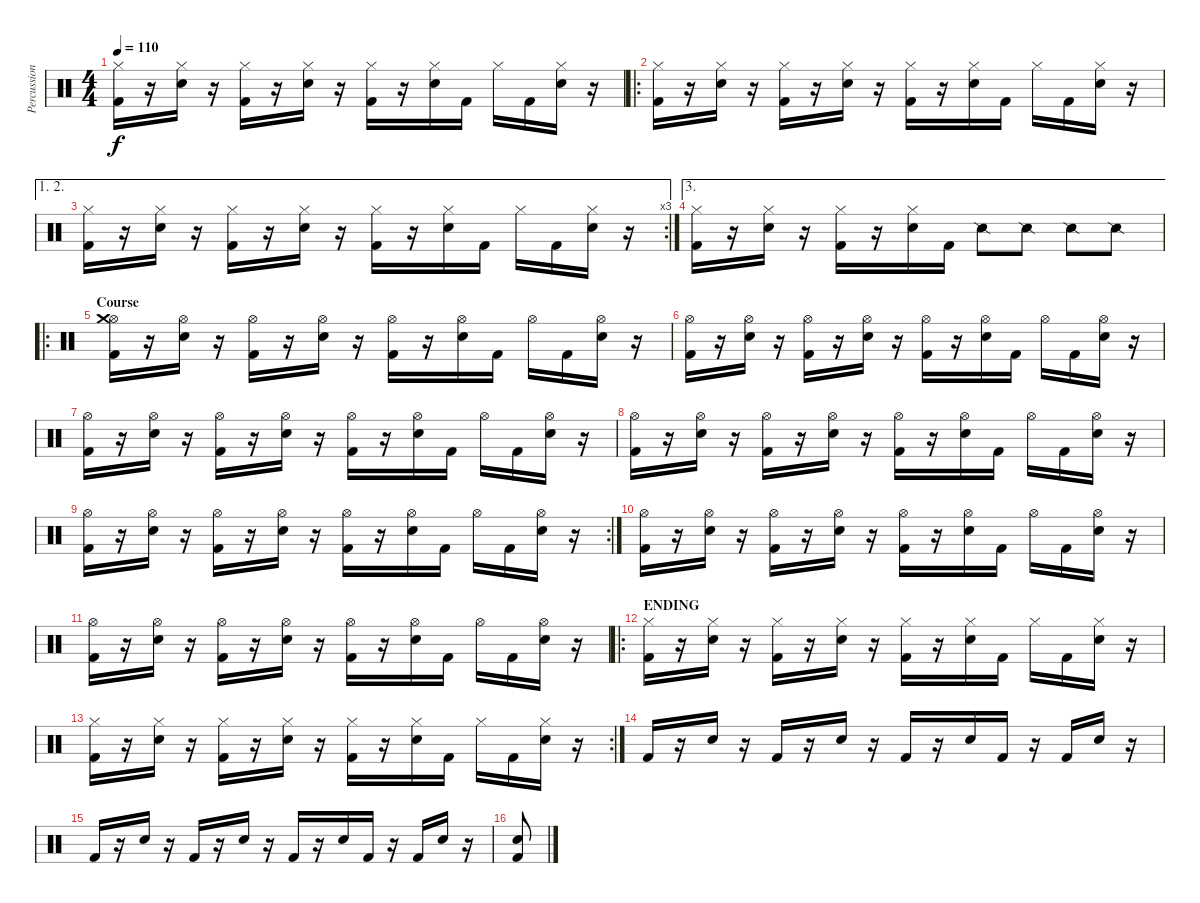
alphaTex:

\track ("Percussion" "Percussion") {instrument percussion}
\staff {score}
\articulation defaults
\ts (4 4)
\tempo 110
\clef neutral
\ks c
("Kick (hit) 2" "Hi-Hat (closed)").16{dy f} r.16 ("Snare (hit) 2" "Hi-Hat (closed)").16 r.16 ("Kick (hit) 2" "Hi-Hat (closed)").16 r.16 ("Snare (hit) 2" "Hi-Hat (closed)").16 r.16 ("Kick (hit) 2" "Hi-Hat (closed)").16 r.16 ("Snare (hit) 2" "Hi-Hat (closed)").16 "Kick (hit) 2".16 "Hi-Hat (closed)".16 "Kick (hit) 2".16 ("Snare (hit) 2" "Hi-Hat (closed)").16 r.16 |
\ro
("Kick (hit) 2" "Hi-Hat (closed)").16 r.16 ("Snare (hit) 2" "Hi-Hat (closed)").16 r.16 ("Kick (hit) 2" "Hi-Hat (closed)").16 r.16 ("Snare (hit) 2" "Hi-Hat (closed)").16 r.16 ("Kick (hit) 2" "Hi-Hat (closed)").16 r.16 ("Snare (hit) 2" "Hi-Hat (closed)").16 "Kick (hit) 2".16 "Hi-Hat (closed)".16 "Kick (hit) 2".16 ("Snare (hit) 2" "Hi-Hat (closed)").16 r.16 |
\ae (1 2)
\rc 3
("Kick (hit) 2" "Hi-Hat (closed)").16 r.16 ("Snare (hit) 2" "Hi-Hat (closed)").16 r.16 ("Kick (hit) 2" "Hi-Hat (closed)").16 r.16 ("Snare (hit) 2" "Hi-Hat (closed)").16 r.16 ("Kick (hit) 2" "Hi-Hat (closed)").16 r.16 ("Snare (hit) 2" "Hi-Hat (closed)").16 "Kick (hit) 2".16 "Hi-Hat (closed)".16 "Kick (hit) 2".16 ("Snare (hit) 2" "Hi-Hat (closed)").16 r.16 |
\ae 3
("Kick (hit) 2" "Hi-Hat (closed)").16 r.16 ("Snare (hit) 2" "Hi-Hat (closed)").16 r.16 ("Kick (hit) 2" "Hi-Hat (closed)").16 r.16 ("Snare (hit) 2" "Hi-Hat (closed)").16 "Kick (hit) 2".16 "Snare (side stick) 2".8 "Snare (side stick) 2".8 "Snare (side stick) 2".8 "Snare (side stick) 2".8 |
\ro
\section ("" "Course")
("Kick (hit) 2" "Hi-Hat (open)" "Crash medium (hit)").16 r.16 ("Snare (hit) 2" "Hi-Hat (open)").16 r.16 ("Kick (hit) 2" "Hi-Hat (open)").16 r.16 ("Snare (hit) 2" "Hi-Hat (open)").16 r.16 ("Kick (hit) 2" "Hi-Hat (open)").16 r.16 ("Snare (hit) 2" "Hi-Hat (open)").16 "Kick (hit) 2".16 "Hi-Hat (open)".16 "Kick (hit) 2".16 ("Snare (hit) 2" "Hi-Hat (open)").16 r.16 |
("Kick (hit) 2" "Hi-Hat (open)").16 r.16 ("Snare (hit) 2" "Hi-Hat (open)").16 r.16 ("Kick (hit) 2" "Hi-Hat (open)").16 r.16 ("Snare (hit) 2" "Hi-Hat (open)").16 r.16 ("Kick (hit) 2" "Hi-Hat (open)").16 r.16 ("Snare (hit) 2" "Hi-Hat (open)").16 "Kick (hit) 2".16 "Hi-Hat (open)".16 "Kick (hit) 2".16 ("Snare (hit) 2" "Hi-Hat (open)").16 r.16 |
("Kick (hit) 2" "Hi-Hat (open)").16 r.16 ("Snare (hit) 2" "Hi-Hat (open)").16 r.16 ("Kick (hit) 2" "Hi-Hat (open)").16 r.16 ("Snare (hit) 2" "Hi-Hat (open)").16 r.16 ("Kick (hit) 2" "Hi-Hat (open)").16 r.16 ("Snare (hit) 2" "Hi-Hat (open)").16 "Kick (hit) 2".16 "Hi-Hat (open)".16 "Kick (hit) 2".16 ("Snare (hit) 2" "Hi-Hat (open)").16 r.16 |
("Kick (hit) 2" "Hi-Hat (open)").16 r.16 ("Snare (hit) 2" "Hi-Hat (open)").16 r.16 ("Kick (hit) 2" "Hi-Hat (open)").16 r.16 ("Snare (hit) 2" "Hi-Hat (open)").16 r.16 ("Kick (hit) 2" "Hi-Hat (open)").16 r.16 ("Snare (hit) 2" "Hi-Hat (open)").16 "Kick (hit) 2".16 "Hi-Hat (open)".16 "Kick (hit) 2".16 ("Snare (hit) 2" "Hi-Hat (open)").16 r.16 |
\rc 2
("Kick (hit) 2" "Hi-Hat (open)").16 r.16 ("Snare (hit) 2" "Hi-Hat (open)").16 r.16 ("Kick (hit) 2" "Hi-Hat (open)").16 r.16 ("Snare (hit) 2" "Hi-Hat (open)").16 r.16 ("Kick (hit) 2" "Hi-Hat (open)").16 r.16 ("Snare (hit) 2" "Hi-Hat (open)").16 "Kick (hit) 2".16 "Hi-Hat (open)".16 "Kick (hit) 2".16 ("Snare (hit) 2" "Hi-Hat (open)").16 r.16 |
("Kick (hit) 2" "Hi-Hat (open)").16 r.16 ("Snare (hit) 2" "Hi-Hat (open)").16 r.16 ("Kick (hit) 2" "Hi-Hat (open)").16 r.16 ("Snare (hit) 2" "Hi-Hat (open)").16 r.16 ("Kick (hit) 2" "Hi-Hat (open)").16 r.16 ("Snare (hit) 2" "Hi-Hat (open)").16 "Kick (hit) 2".16 "Hi-Hat (open)".16 "Kick (hit) 2".16 ("Snare (hit) 2" "Hi-Hat (open)").16 r.16 |
("Kick (hit) 2" "Hi-Hat (open)").16 r.16 ("Snare (hit) 2" "Hi-Hat (open)").16 r.16 ("Kick (hit) 2" "Hi-Hat (open)").16 r.16 ("Snare (hit) 2" "Hi-Hat (open)").16 r.16 ("Kick (hit) 2" "Hi-Hat (open)").16 r.16 ("Snare (hit) 2" "Hi-Hat (open)").16 "Kick (hit) 2".16 "Hi-Hat (open)".16 "Kick (hit) 2".16 ("Snare (hit) 2" "Hi-Hat (open)").16 r.16 |
\ro
\section ("" "ENDING")
("Kick (hit) 2" "Hi-Hat (closed)").16 r.16 ("Snare (hit) 2" "Hi-Hat (closed)").16 r.16 ("Kick (hit) 2" "Hi-Hat (closed)").16 r.16 ("Snare (hit) 2" "Hi-Hat (closed)").16 r.16 ("Kick (hit) 2" "Hi-Hat (closed)").16 r.16 ("Snare (hit) 2" "Hi-Hat (closed)").16 "Kick (hit) 2".16 "Hi-Hat (closed)".16 "Kick (hit) 2".16 ("Snare (hit) 2" "Hi-Hat (closed)").16 r.16 |
\rc 2
("Kick (hit) 2" "Hi-Hat (closed)").16 r.16 ("Snare (hit) 2" "Hi-Hat (closed)").16 r.16 ("Kick (hit) 2" "Hi-Hat (closed)").16 r.16 ("Snare (hit) 2" "Hi-Hat (closed)").16 r.16 ("Kick (hit) 2" "Hi-Hat (closed)").16 r.16 ("Snare (hit) 2" "Hi-Hat (closed)").16 "Kick (hit) 2".16 "Hi-Hat (closed)".16 "Kick (hit) 2".16 ("Snare (hit) 2" "Hi-Hat (closed)").16 r.16 |
"Kick (hit) 2".16 r.16 "Snare (hit) 2".16 r.16 "Kick (hit) 2".16 r.16 "Snare (hit) 2".16 r.16 "Kick (hit) 2".16 r.16 "Snare (hit) 2".16 "Kick (hit) 2".16 r.16 "Kick (hit) 2".16 "Snare (hit) 2".16 r.16 |
"Kick (hit) 2".16 r.16 "Snare (hit) 2".16 r.16 "Kick (hit) 2".16 r.16 "Snare (hit) 2".16 r.16 "Kick (hit) 2".16 r.16 "Snare (hit) 2".16 "Kick (hit) 2".16 r.16 "Kick (hit) 2".16 "Snare (hit) 2".16 r.16 |
("Snare (hit) 2" "Kick (hit) 2").8
